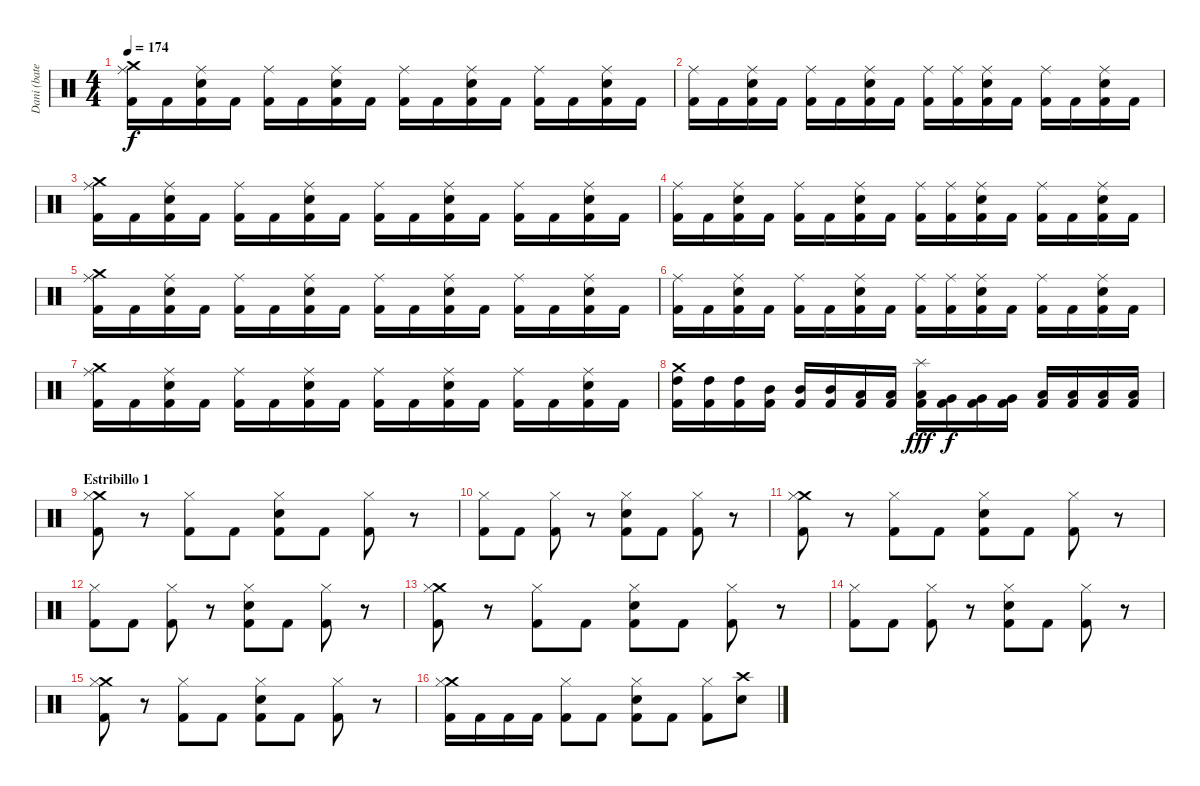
\track ("Dani (batería)" "Dani (bate") {instrument percussion}
\staff {score}
\articulation defaults
\ts (4 4)
\tempo 174
\clef neutral
\ks c
("Crash medium (hit)" "Ride (middle)" "Kick (hit) 2").16{dy f} "Kick (hit) 2".16 ("Ride (middle)" "Electric Snare (hit)" "Kick (hit) 2").16 "Kick (hit) 2".16 ("Ride (middle)" "Kick (hit) 2").16 "Kick (hit) 2".16 ("Ride (middle)" "Electric Snare (hit)" "Kick (hit) 2").16 "Kick (hit) 2".16 ("Ride (middle)" "Kick (hit) 2").16 "Kick (hit) 2".16 ("Ride (middle)" "Electric Snare (hit)" "Kick (hit) 2").16 "Kick (hit) 2".16 ("Ride (middle)" "Kick (hit) 2").16 "Kick (hit) 2".16 ("Ride (middle)" "Electric Snare (hit)" "Kick (hit) 2").16 "Kick (hit) 2".16 |
("Ride (middle)" "Kick (hit) 2").16 "Kick (hit) 2".16 ("Ride (middle)" "Electric Snare (hit)" "Kick (hit) 2").16 "Kick (hit) 2".16 ("Ride (middle)" "Kick (hit) 2").16 "Kick (hit) 2".16 ("Ride (middle)" "Electric Snare (hit)" "Kick (hit) 2").16 "Kick (hit) 2".16 ("Ride (middle)" "Kick (hit) 2").16 ("Ride (middle)" "Kick (hit) 2").16 ("Ride (middle)" "Electric Snare (hit)" "Kick (hit) 2").16 "Kick (hit) 2".16 ("Ride (middle)" "Kick (hit) 2").16 "Kick (hit) 2".16 ("Ride (middle)" "Electric Snare (hit)" "Kick (hit) 2").16 "Kick (hit) 2".16 |
("Crash medium (hit)" "Ride (middle)" "Kick (hit) 2").16 "Kick (hit) 2".16 ("Ride (middle)" "Electric Snare (hit)" "Kick (hit) 2").16 "Kick (hit) 2".16 ("Ride (middle)" "Kick (hit) 2").16 "Kick (hit) 2".16 ("Ride (middle)" "Electric Snare (hit)" "Kick (hit) 2").16 "Kick (hit) 2".16 ("Ride (middle)" "Kick (hit) 2").16 "Kick (hit) 2".16 ("Ride (middle)" "Electric Snare (hit)" "Kick (hit) 2").16 "Kick (hit) 2".16 ("Ride (middle)" "Kick (hit) 2").16 "Kick (hit) 2".16 ("Ride (middle)" "Electric Snare (hit)" "Kick (hit) 2").16 "Kick (hit) 2".16 |
("Ride (middle)" "Kick (hit) 2").16 "Kick (hit) 2".16 ("Ride (middle)" "Electric Snare (hit)" "Kick (hit) 2").16 "Kick (hit) 2".16 ("Ride (middle)" "Kick (hit) 2").16 "Kick (hit) 2".16 ("Ride (middle)" "Electric Snare (hit)" "Kick (hit) 2").16 "Kick (hit) 2".16 ("Ride (middle)" "Kick (hit) 2").16 ("Ride (middle)" "Kick (hit) 2").16 ("Ride (middle)" "Electric Snare (hit)" "Kick (hit) 2").16 "Kick (hit) 2".16 ("Ride (middle)" "Kick (hit) 2").16 "Kick (hit) 2".16 ("Ride (middle)" "Electric Snare (hit)" "Kick (hit) 2").16 "Kick (hit) 2".16 |
("Crash medium (hit)" "Ride (middle)" "Kick (hit) 2").16 "Kick (hit) 2".16 ("Ride (middle)" "Electric Snare (hit)" "Kick (hit) 2").16 "Kick (hit) 2".16 ("Ride (middle)" "Kick (hit) 2").16 "Kick (hit) 2".16 ("Ride (middle)" "Electric Snare (hit)" "Kick (hit) 2").16 "Kick (hit) 2".16 ("Ride (middle)" "Kick (hit) 2").16 "Kick (hit) 2".16 ("Ride (middle)" "Electric Snare (hit)" "Kick (hit) 2").16 "Kick (hit) 2".16 ("Ride (middle)" "Kick (hit) 2").16 "Kick (hit) 2".16 ("Ride (middle)" "Electric Snare (hit)" "Kick (hit) 2").16 "Kick (hit) 2".16 |
("Ride (middle)" "Kick (hit) 2").16 "Kick (hit) 2".16 ("Ride (middle)" "Electric Snare (hit)" "Kick (hit) 2").16 "Kick (hit) 2".16 ("Ride (middle)" "Kick (hit) 2").16 "Kick (hit) 2".16 ("Ride (middle)" "Electric Snare (hit)" "Kick (hit) 2").16 "Kick (hit) 2".16 ("Ride (middle)" "Kick (hit) 2").16 ("Ride (middle)" "Kick (hit) 2").16 ("Ride (middle)" "Electric Snare (hit)" "Kick (hit) 2").16 "Kick (hit) 2".16 ("Ride (middle)" "Kick (hit) 2").16 "Kick (hit) 2".16 ("Ride (middle)" "Electric Snare (hit)" "Kick (hit) 2").16 "Kick (hit) 2".16 |
("Crash medium (hit)" "Ride (middle)" "Kick (hit) 2").16 "Kick (hit) 2".16 ("Ride (middle)" "Electric Snare (hit)" "Kick (hit) 2").16 "Kick (hit) 2".16 ("Ride (middle)" "Kick (hit) 2").16 "Kick (hit) 2".16 ("Ride (middle)" "Electric Snare (hit)" "Kick (hit) 2").16 "Kick (hit) 2".16 ("Ride (middle)" "Kick (hit) 2").16 "Kick (hit) 2".16 ("Ride (middle)" "Electric Snare (hit)" "Kick (hit) 2").16 "Kick (hit) 2".16 ("Ride (middle)" "Kick (hit) 2").16 "Kick (hit) 2".16 ("Ride (middle)" "Electric Snare (hit)" "Kick (hit) 2").16 "Kick (hit) 2".16 |
("Crash medium (hit)" "High Tom (hit)" "Kick (hit) 2").16 ("High Tom (hit)" "Kick (hit) 2").16 ("High Tom (hit)" "Kick (hit) 2").16 ("Mid Tom (hit)" "Kick (hit) 2").16 ("Mid Tom (hit)" "Kick (hit) 2").16 ("Mid Tom (hit)" "Kick (hit) 2").16 ("Low Tom (hit)" "Kick (hit) 2").16 ("Low Tom (hit)" "Kick (hit) 2").16 ("Splash (hit)" "Low Tom (hit)" "Kick (hit) 2").16{dy fff} ("Very Low Tom (hit)" "Kick (hit) 2").16{dy f} ("Very Low Tom (hit)" "Kick (hit) 2").16 ("Very Low Tom (hit)" "Kick (hit) 2").16 ("Low Floor Tom (hit)" "Kick (hit) 2").16 ("Low Floor Tom (hit)" "Kick (hit) 2").16 ("Low Floor Tom (hit)" "Kick (hit) 2").16 ("Low Floor Tom (hit)" "Kick (hit) 2").16 |
\section ("" "Estribillo 1")
("Crash medium (hit)" "Hi-Hat (closed)" "Kick (hit) 2").8 r.8 ("Hi-Hat (closed)" "Kick (hit) 2").8 "Kick (hit) 2".8 ("Hi-Hat (closed)" "Electric Snare (hit)" "Kick (hit) 2").8 "Kick (hit) 2".8 ("Hi-Hat (closed)" "Kick (hit) 2").8 r.8 |
("Hi-Hat (closed)" "Kick (hit) 2").8 "Kick (hit) 2".8 ("Hi-Hat (closed)" "Kick (hit) 2").8 r.8 ("Hi-Hat (closed)" "Electric Snare (hit)" "Kick (hit) 2").8 "Kick (hit) 2".8 ("Hi-Hat (closed)" "Kick (hit) 2").8 r.8 |
("Crash medium (hit)" "Hi-Hat (closed)" "Kick (hit) 2").8 r.8 ("Hi-Hat (closed)" "Kick (hit) 2").8 "Kick (hit) 2".8 ("Hi-Hat (closed)" "Electric Snare (hit)" "Kick (hit) 2").8 "Kick (hit) 2".8 ("Hi-Hat (closed)" "Kick (hit) 2").8 r.8 |
("Hi-Hat (closed)" "Kick (hit) 2").8 "Kick (hit) 2".8 ("Hi-Hat (closed)" "Kick (hit) 2").8 r.8 ("Hi-Hat (closed)" "Electric Snare (hit)" "Kick (hit) 2").8 "Kick (hit) 2".8 ("Hi-Hat (closed)" "Kick (hit) 2").8 r.8 |
("Crash medium (hit)" "Hi-Hat (closed)" "Kick (hit) 2").8 r.8 ("Hi-Hat (closed)" "Kick (hit) 2").8 "Kick (hit) 2".8 ("Hi-Hat (closed)" "Electric Snare (hit)" "Kick (hit) 2").8 "Kick (hit) 2".8 ("Hi-Hat (closed)" "Kick (hit) 2").8 r.8 |
("Hi-Hat (closed)" "Kick (hit) 2").8 "Kick (hit) 2".8 ("Hi-Hat (closed)" "Kick (hit) 2").8 r.8 ("Hi-Hat (closed)" "Electric Snare (hit)" "Kick (hit) 2").8 "Kick (hit) 2".8 ("Hi-Hat (closed)" "Kick (hit) 2").8 r.8 |
("Crash medium (hit)" "Hi-Hat (closed)" "Kick (hit) 2").8 r.8 ("Hi-Hat (closed)" "Kick (hit) 2").8 "Kick (hit) 2".8 ("Hi-Hat (closed)" "Electric Snare (hit)" "Kick (hit) 2").8 "Kick (hit) 2".8 ("Hi-Hat (closed)" "Kick (hit) 2").8 r.8 |
("Crash medium (hit)" "Hi-Hat (closed)" "Kick (hit) 2").16 "Kick (hit) 2".16 "Kick (hit) 2".16 "Kick (hit) 2".16 ("Hi-Hat (closed)" "Kick (hit) 2").8 "Kick (hit) 2".8 ("Hi-Hat (closed)" "Electric Snare (hit)" "Kick (hit) 2").8 "Kick (hit) 2".8 ("Hi-Hat (closed)" "Kick (hit) 2").8 ("Crash high (hit)" "Electric Snare (hit)").8
